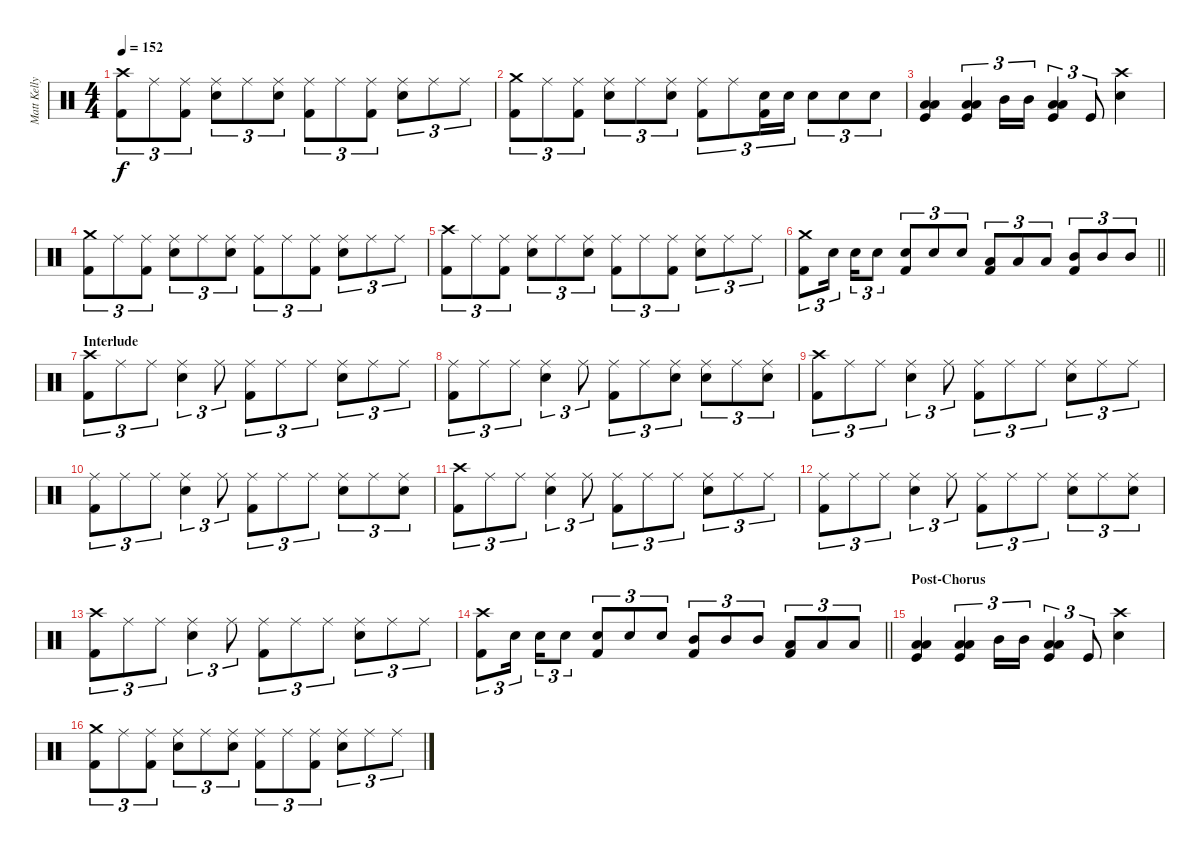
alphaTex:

\track ("Matt Kelly (Drums)" "Matt Kelly") {instrument percussion}
\staff {score}
\articulation defaults
\ts (4 4)
\tempo 152
\clef neutral
\ks c
("Crash high (hit)" "Kick (hit) 2").8{tu (3 2) dy f} "Ride (middle)".8{tu (3 2)} ("Ride (middle)" "Kick (hit) 2").8{tu (3 2)} ("Ride (middle)" "Electric Snare (hit)").8{tu (3 2)} "Ride (middle)".8{tu (3 2)} ("Ride (middle)" "Electric Snare (hit)").8{tu (3 2)} ("Ride (middle)" "Kick (hit) 2").8{tu (3 2)} "Ride (middle)".8{tu (3 2)} ("Ride (middle)" "Kick (hit) 2").8{tu (3 2)} ("Ride (middle)" "Electric Snare (hit)").8{tu (3 2)} "Ride (middle)".8{tu (3 2)} "Ride (middle)".8{tu (3 2)} |
("Crash medium (hit)" "Kick (hit) 2").8{tu (3 2)} "Ride (middle)".8{tu (3 2)} ("Ride (middle)" "Kick (hit) 2").8{tu (3 2)} ("Ride (middle)" "Electric Snare (hit)").8{tu (3 2)} "Ride (middle)".8{tu (3 2)} ("Ride (middle)" "Electric Snare (hit)").8{tu (3 2)} ("Ride (middle)" "Kick (hit) 2").8{tu (3 2)} "Ride (middle)".8{tu (3 2)} ("Electric Snare (hit)" "Kick (hit) 2").16{tu (3 2)} "Electric Snare (hit)".16{tu (3 2)} "Electric Snare (hit)".8{tu (3 2)} "Electric Snare (hit)".8{tu (3 2)} "Electric Snare (hit)".8{tu (3 2)} |
("Low Tom (hit)" "Low Floor Tom (hit)" "Kick (hit)").4 ("Low Tom (hit)" "Low Floor Tom (hit)" "Kick (hit)").4{tu (3 2)} "Mid Tom (hit)".16{tu (3 2)} "Mid Tom (hit)".16{tu (3 2)} ("Low Tom (hit)" "Low Floor Tom (hit)" "Kick (hit)").4{tu (3 2)} "Kick (hit)".8{tu (3 2)} ("Crash high (hit)" "Snare (hit) 2").4 |
("Crash medium (hit)" "Kick (hit) 2").8{tu (3 2)} "Ride (middle)".8{tu (3 2)} ("Ride (middle)" "Kick (hit) 2").8{tu (3 2)} ("Ride (middle)" "Electric Snare (hit)").8{tu (3 2)} "Ride (middle)".8{tu (3 2)} ("Ride (middle)" "Electric Snare (hit)").8{tu (3 2)} ("Ride (middle)" "Kick (hit) 2").8{tu (3 2)} "Ride (middle)".8{tu (3 2)} ("Ride (middle)" "Kick (hit) 2").8{tu (3 2)} ("Ride (middle)" "Electric Snare (hit)").8{tu (3 2)} "Ride (middle)".8{tu (3 2)} "Ride (middle)".8{tu (3 2)} |
("Crash high (hit)" "Kick (hit) 2").8{tu (3 2)} "Ride (middle)".8{tu (3 2)} ("Ride (middle)" "Kick (hit) 2").8{tu (3 2)} ("Ride (middle)" "Electric Snare (hit)").8{tu (3 2)} "Ride (middle)".8{tu (3 2)} ("Ride (middle)" "Electric Snare (hit)").8{tu (3 2)} ("Ride (middle)" "Kick (hit) 2").8{tu (3 2)} "Ride (middle)".8{tu (3 2)} ("Ride (middle)" "Kick (hit) 2").8{tu (3 2)} ("Ride (middle)" "Electric Snare (hit)").8{tu (3 2)} "Ride (middle)".8{tu (3 2)} "Ride (middle)".8{tu (3 2)} |
\barLineRight lightlight
("Crash medium (hit)" "Kick (hit) 2").8{tu (3 2)} "Electric Snare (hit)".16{tu (3 2) beam splitsecondary} "Electric Snare (hit)".16{tu (3 2)} "Electric Snare (hit)".8{tu (3 2)} ("Electric Snare (hit)" "Kick (hit) 2").8{tu (3 2)} "Electric Snare (hit)".8{tu (3 2)} "Electric Snare (hit)".8{tu (3 2)} ("Low Tom (hit)" "Kick (hit) 2").8{tu (3 2)} "Low Tom (hit)".8{tu (3 2)} "Low Tom (hit)".8{tu (3 2)} ("Mid Tom (hit)" "Kick (hit) 2").8{tu (3 2)} "Mid Tom (hit)".8{tu (3 2)} "Mid Tom (hit)".8{tu (3 2)} |
\section ("" "Interlude")
("Crash high (hit)" "Kick (hit) 2").8{tu (3 2)} "Ride (middle)".8{tu (3 2)} "Ride (middle)".8{tu (3 2)} ("Ride (middle)" "Electric Snare (hit)").4{tu (3 2)} "Ride (middle)".8{tu (3 2)} ("Ride (middle)" "Kick (hit) 2").8{tu (3 2)} "Ride (middle)".8{tu (3 2)} "Ride (middle)".8{tu (3 2)} ("Ride (middle)" "Electric Snare (hit)").8{tu (3 2)} "Ride (middle)".8{tu (3 2)} "Ride (middle)".8{tu (3 2)} |
("Ride (middle)" "Kick (hit) 2").8{tu (3 2)} "Ride (middle)".8{tu (3 2)} "Ride (middle)".8{tu (3 2)} ("Ride (middle)" "Electric Snare (hit)").4{tu (3 2)} "Ride (middle)".8{tu (3 2)} ("Ride (middle)" "Kick (hit) 2").8{tu (3 2)} "Ride (middle)".8{tu (3 2)} ("Ride (middle)" "Electric Snare (hit)").8{tu (3 2)} ("Ride (middle)" "Electric Snare (hit)").8{tu (3 2)} "Ride (middle)".8{tu (3 2)} ("Ride (middle)" "Electric Snare (hit)").8{tu (3 2)} |
("Crash high (hit)" "Kick (hit) 2").8{tu (3 2)} "Ride (middle)".8{tu (3 2)} "Ride (middle)".8{tu (3 2)} ("Ride (middle)" "Electric Snare (hit)").4{tu (3 2)} "Ride (middle)".8{tu (3 2)} ("Ride (middle)" "Kick (hit) 2").8{tu (3 2)} "Ride (middle)".8{tu (3 2)} "Ride (middle)".8{tu (3 2)} ("Ride (middle)" "Electric Snare (hit)").8{tu (3 2)} "Ride (middle)".8{tu (3 2)} "Ride (middle)".8{tu (3 2)} |
("Ride (middle)" "Kick (hit) 2").8{tu (3 2)} "Ride (middle)".8{tu (3 2)} "Ride (middle)".8{tu (3 2)} ("Ride (middle)" "Electric Snare (hit)").4{tu (3 2)} "Ride (middle)".8{tu (3 2)} ("Ride (middle)" "Kick (hit) 2").8{tu (3 2)} "Ride (middle)".8{tu (3 2)} "Ride (middle)".8{tu (3 2)} ("Ride (middle)" "Electric Snare (hit)").8{tu (3 2)} "Ride (middle)".8{tu (3 2)} ("Ride (middle)" "Electric Snare (hit)").8{tu (3 2)} |
("Crash high (hit)" "Kick (hit) 2").8{tu (3 2)} "Ride (middle)".8{tu (3 2)} "Ride (middle)".8{tu (3 2)} ("Ride (middle)" "Electric Snare (hit)").4{tu (3 2)} "Ride (middle)".8{tu (3 2)} ("Ride (middle)" "Kick (hit) 2").8{tu (3 2)} "Ride (middle)".8{tu (3 2)} "Ride (middle)".8{tu (3 2)} ("Ride (middle)" "Electric Snare (hit)").8{tu (3 2)} "Ride (middle)".8{tu (3 2)} "Ride (middle)".8{tu (3 2)} |
("Ride (middle)" "Kick (hit) 2").8{tu (3 2)} "Ride (middle)".8{tu (3 2)} "Ride (middle)".8{tu (3 2)} ("Ride (middle)" "Electric Snare (hit)").4{tu (3 2)} "Ride (middle)".8{tu (3 2)} ("Ride (middle)" "Kick (hit) 2").8{tu (3 2)} "Ride (middle)".8{tu (3 2)} "Ride (middle)".8{tu (3 2)} ("Ride (middle)" "Electric Snare (hit)").8{tu (3 2)} "Ride (middle)".8{tu (3 2)} ("Ride (middle)" "Electric Snare (hit)").8{tu (3 2)} |
("Crash high (hit)" "Kick (hit) 2").8{tu (3 2)} "Ride (middle)".8{tu (3 2)} "Ride (middle)".8{tu (3 2)} ("Ride (middle)" "Electric Snare (hit)").4{tu (3 2)} "Ride (middle)".8{tu (3 2)} ("Ride (middle)" "Kick (hit) 2").8{tu (3 2)} "Ride (middle)".8{tu (3 2)} "Ride (middle)".8{tu (3 2)} ("Ride (middle)" "Electric Snare (hit)").8{tu (3 2)} "Ride (middle)".8{tu (3 2)} "Ride (middle)".8{tu (3 2)} |
\barLineRight lightlight
("Crash high (hit)" "Kick (hit) 2").8{tu (3 2)} "Electric Snare (hit)".16{tu (3 2) beam splitsecondary} "Electric Snare (hit)".16{tu (3 2)} "Electric Snare (hit)".8{tu (3 2)} ("Electric Snare (hit)" "Kick (hit) 2").8{tu (3 2)} "Electric Snare (hit)".8{tu (3 2)} "Electric Snare (hit)".8{tu (3 2)} ("Mid Tom (hit)" "Kick (hit) 2").8{tu (3 2)} "Mid Tom (hit)".8{tu (3 2)} "Mid Tom (hit)".8{tu (3 2)} ("Low Tom (hit)" "Kick (hit) 2").8{tu (3 2)} "Low Tom (hit)".8{tu (3 2)} "Low Tom (hit)".8{tu (3 2)} |
\section ("" "Post-Chorus")
("Low Tom (hit)" "Low Floor Tom (hit)" "Kick (hit)").4 ("Low Tom (hit)" "Low Floor Tom (hit)" "Kick (hit)").4{tu (3 2)} "Mid Tom (hit)".16{tu (3 2)} "Mid Tom (hit)".16{tu (3 2)} ("Low Tom (hit)" "Low Floor Tom (hit)" "Kick (hit)").4{tu (3 2)} "Kick (hit)".8{tu (3 2)} ("Crash high (hit)" "Snare (hit) 2").4 |
("Crash medium (hit)" "Kick (hit) 2").8{tu (3 2)} "Ride (middle)".8{tu (3 2)} ("Ride (middle)" "Kick (hit) 2").8{tu (3 2)} ("Ride (middle)" "Electric Snare (hit)").8{tu (3 2)} "Ride (middle)".8{tu (3 2)} ("Ride (middle)" "Electric Snare (hit)").8{tu (3 2)} ("Ride (middle)" "Kick (hit) 2").8{tu (3 2)} "Ride (middle)".8{tu (3 2)} ("Ride (middle)" "Kick (hit) 2").8{tu (3 2)} ("Ride (middle)" "Electric Snare (hit)").8{tu (3 2)} "Ride (middle)".8{tu (3 2)} "Ride (middle)".8{tu (3 2)}
